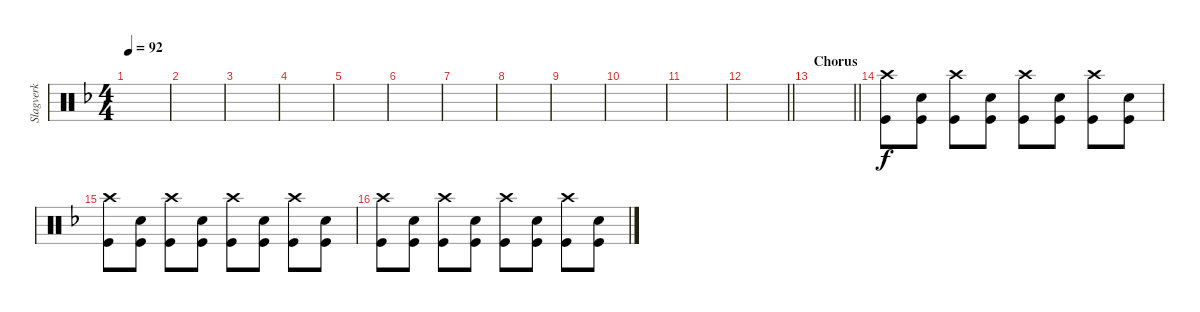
\track ("Slagverk" "Slagverk") {instrument percussion}
\staff {score}
\articulation defaults
\ts (4 4)
\tempo 92
\clef neutral
\ks f
|
|
|
|
|
|
|
|
|
|
|
\barLineRight lightlight
|
\section ("" "Chorus")
\barLineRight lightlight
|
("Crash high (hit)" "Kick (hit)").8 ("Snare (hit) 2" "Kick (hit)").8 ("Crash high (hit)" "Kick (hit)").8 ("Snare (hit) 2" "Kick (hit)").8 ("Crash high (hit)" "Kick (hit)").8 ("Snare (hit) 2" "Kick (hit)").8 ("Crash high (hit)" "Kick (hit)").8 ("Snare (hit) 2" "Kick (hit)").8 |
("Crash high (hit)" "Kick (hit)").8 ("Snare (hit) 2" "Kick (hit)").8 ("Crash high (hit)" "Kick (hit)").8 ("Snare (hit) 2" "Kick (hit)").8 ("Crash high (hit)" "Kick (hit)").8 ("Snare (hit) 2" "Kick (hit)").8 ("Crash high (hit)" "Kick (hit)").8 ("Snare (hit) 2" "Kick (hit)").8 |
("Crash high (hit)" "Kick (hit)").8 ("Snare (hit) 2" "Kick (hit)").8 ("Crash high (hit)" "Kick (hit)").8 ("Snare (hit) 2" "Kick (hit)").8 ("Crash high (hit)" "Kick (hit)").8 ("Snare (hit) 2" "Kick (hit)").8 ("Crash high (hit)" "Kick (hit)").8 ("Snare (hit) 2" "Kick (hit)").8
